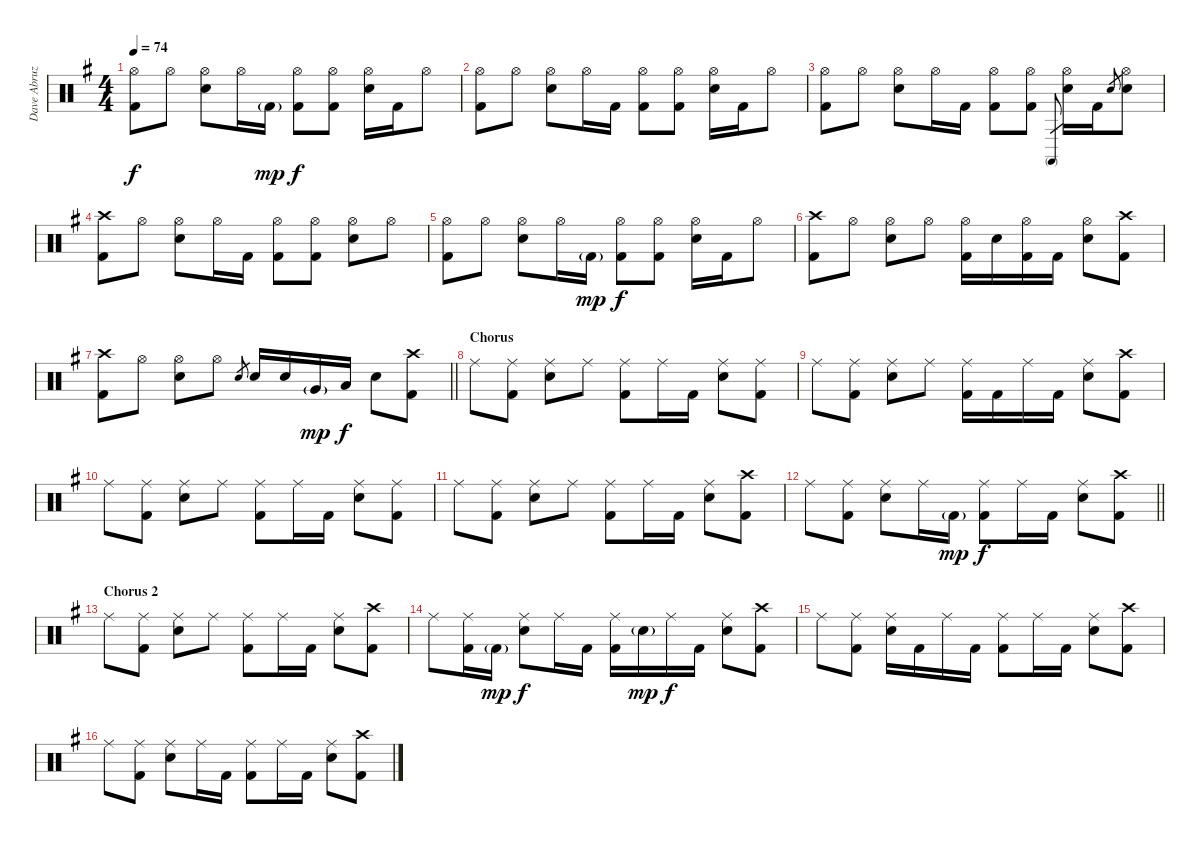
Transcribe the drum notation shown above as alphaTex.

\track ("Dave Abruzzese" "Dave Abruz") {instrument percussion}
\staff {score}
\articulation defaults
\ts (4 4)
\tempo 74
\clef neutral
\ks eminor
("Hi-Hat (open)" "Kick (hit) 2").8{dy f} "Hi-Hat (open)".8 ("Hi-Hat (open)" "Electric Snare (hit)").8 "Hi-Hat (open)".16 "Kick (hit) 2"{g}.16{dy mp} ("Hi-Hat (open)" "Kick (hit) 2").8{dy f} ("Hi-Hat (open)" "Kick (hit) 2").8 ("Hi-Hat (open)" "Electric Snare (hit)").16 "Kick (hit) 2".16 "Hi-Hat (open)".8 |
("Hi-Hat (open)" "Kick (hit) 2").8 "Hi-Hat (open)".8 ("Hi-Hat (open)" "Electric Snare (hit)").8 "Hi-Hat (open)".16 "Kick (hit) 2".16 ("Hi-Hat (open)" "Kick (hit) 2").8 ("Hi-Hat (open)" "Kick (hit) 2").8 ("Hi-Hat (open)" "Electric Snare (hit)").16 "Kick (hit) 2".16 "Hi-Hat (open)".8 |
("Hi-Hat (open)" "Kick (hit) 2").8 "Hi-Hat (open)".8 ("Hi-Hat (open)" "Electric Snare (hit)").8 "Hi-Hat (open)".16 "Kick (hit) 2".16 ("Hi-Hat (open)" "Kick (hit) 2").8 ("Hi-Hat (open)" "Kick (hit) 2").8 "Conga high (mute)".8{gr} ("Hi-Hat (open)" "Electric Snare (hit)").16 "Kick (hit) 2".16 "Electric Snare (hit)".8{gr} ("Hi-Hat (open)" "Electric Snare (hit)").8 |
("Crash high (hit)" "Kick (hit) 2").8 "Hi-Hat (open)".8 ("Hi-Hat (open)" "Electric Snare (hit)").8 "Hi-Hat (open)".16 "Kick (hit) 2".16 ("Hi-Hat (open)" "Kick (hit) 2").8 ("Hi-Hat (open)" "Kick (hit) 2").8 ("Hi-Hat (open)" "Electric Snare (hit)").8 "Hi-Hat (open)".8 |
("Hi-Hat (open)" "Kick (hit) 2").8 "Hi-Hat (open)".8 ("Hi-Hat (open)" "Electric Snare (hit)").8 "Hi-Hat (open)".16 "Kick (hit) 2"{g}.16{dy mp} ("Hi-Hat (open)" "Kick (hit) 2").8{dy f} ("Hi-Hat (open)" "Kick (hit) 2").8 ("Hi-Hat (open)" "Electric Snare (hit)").16 "Kick (hit) 2".16 "Hi-Hat (open)".8 |
("Crash high (hit)" "Kick (hit) 2").8 "Hi-Hat (open)".8 ("Hi-Hat (open)" "Electric Snare (hit)").8 "Hi-Hat (open)".8 ("Hi-Hat (open)" "Kick (hit) 2").16 "Electric Snare (hit)".16 ("Hi-Hat (open)" "Kick (hit) 2").16 "Kick (hit) 2".16 ("Hi-Hat (open)" "Electric Snare (hit)").8 ("Crash high (hit)" "Kick (hit) 2").8 |
\barLineRight lightlight
("Crash high (hit)" "Kick (hit) 2").8 "Hi-Hat (open)".8 ("Hi-Hat (open)" "Electric Snare (hit)").8 "Hi-Hat (open)".8 "Electric Snare (hit)".8{gr} "Electric Snare (hit)".16 "Electric Snare (hit)".16 "Very Low Tom (hit)"{g}.16{dy mp} "Low Floor Tom (hit)".16{dy f} "Electric Snare (hit)".8 ("Crash high (hit)" "Kick (hit) 2").8 |
\section ("" "Chorus")
"Ride (middle)".8 ("Ride (middle)" "Kick (hit) 2").8 ("Ride (middle)" "Electric Snare (hit)").8 "Ride (middle)".8 ("Ride (middle)" "Kick (hit) 2").8 "Ride (middle)".16 "Kick (hit) 2".16 ("Ride (middle)" "Electric Snare (hit)").8 ("Ride (middle)" "Kick (hit) 2").8 |
"Ride (middle)".8 ("Ride (middle)" "Kick (hit) 2").8 ("Ride (middle)" "Electric Snare (hit)").8 "Ride (middle)".8 ("Ride (middle)" "Kick (hit) 2").16 "Kick (hit) 2".16 "Ride (middle)".16 "Kick (hit) 2".16 ("Ride (middle)" "Electric Snare (hit)").8 ("Crash high (hit)" "Kick (hit) 2").8 |
"Ride (middle)".8 ("Ride (middle)" "Kick (hit) 2").8 ("Ride (middle)" "Electric Snare (hit)").8 "Ride (middle)".8 ("Ride (middle)" "Kick (hit) 2").8 "Ride (middle)".16 "Kick (hit) 2".16 ("Ride (middle)" "Electric Snare (hit)").8 ("Ride (middle)" "Kick (hit) 2").8 |
"Ride (middle)".8 ("Ride (middle)" "Kick (hit) 2").8 ("Ride (middle)" "Electric Snare (hit)").8 "Ride (middle)".8 ("Ride (middle)" "Kick (hit) 2").8 "Ride (middle)".16 "Kick (hit) 2".16 ("Ride (middle)" "Electric Snare (hit)").8 ("Crash high (hit)" "Kick (hit) 2").8 |
\barLineRight lightlight "Ride (middle)".8
("Ride (middle)" "Kick (hit) 2").8 ("Ride (middle)" "Electric Snare (hit)").8 "Ride (middle)".16 "Kick (hit) 2"{g}.16{dy mp} ("Ride (middle)" "Kick (hit) 2").8{dy f} "Ride (middle)".16 "Kick (hit) 2".16 ("Ride (middle)" "Electric Snare (hit)").8 ("Crash high (hit)" "Kick (hit) 2").8 |
\section ("" "Chorus 2")
"Ride (middle)".8 ("Ride (middle)" "Kick (hit) 2").8 ("Ride (middle)" "Electric Snare (hit)").8 "Ride (middle)".8 ("Ride (middle)" "Kick (hit) 2").8 "Ride (middle)".16 "Kick (hit) 2".16 ("Ride (middle)" "Electric Snare (hit)").8 ("Crash high (hit)" "Kick (hit) 2").8 |
"Ride (middle)".8 ("Ride (middle)" "Kick (hit) 2").16 "Kick (hit) 2"{g}.16{dy mp} ("Ride (middle)" "Electric Snare (hit)").8{dy f} "Ride (middle)".16 "Kick (hit) 2".16 ("Ride (middle)" "Kick (hit) 2").16 "Electric Snare (hit)"{g}.16{dy mp} "Ride (middle)".16{dy f} "Kick (hit) 2".16 ("Ride (middle)" "Electric Snare (hit)").8 ("Crash high (hit)" "Kick (hit) 2").8 |
"Ride (middle)".8 ("Ride (middle)" "Kick (hit) 2").8 ("Ride (middle)" "Electric Snare (hit)").16 "Kick (hit) 2".16 "Ride (middle)".16 "Kick (hit) 2".16 ("Ride (middle)" "Kick (hit) 2").8 "Ride (middle)".16 "Kick (hit) 2".16 ("Ride (middle)" "Electric Snare (hit)").8 ("Crash high (hit)" "Kick (hit) 2").8 |
"Ride (middle)".8 ("Ride (middle)" "Kick (hit) 2").8 ("Ride (middle)" "Electric Snare (hit)").8 "Ride (middle)".16 "Kick (hit) 2".16 ("Ride (middle)" "Kick (hit) 2").8 "Ride (middle)".16 "Kick (hit) 2".16 ("Ride (middle)" "Electric Snare (hit)").8 ("Crash high (hit)" "Kick (hit) 2").8
